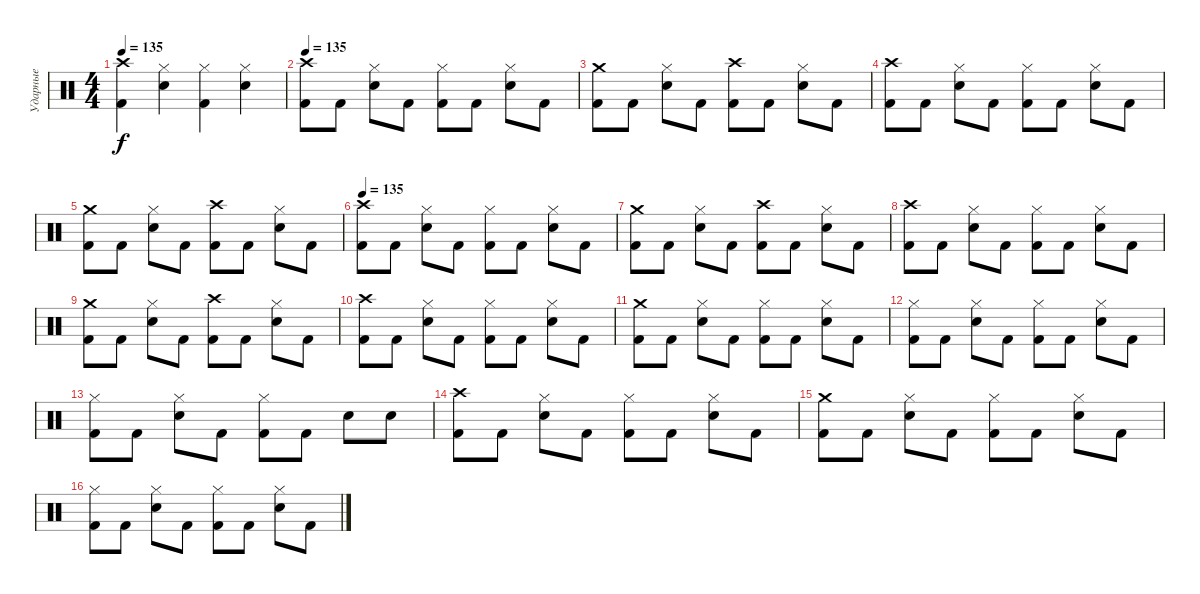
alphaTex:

\track ("Ударные" "Ударные") {solo instrument percussion}
\staff {score}
\articulation defaults
\ts (4 4)
\tempo 135
\clef neutral
\ks c
("Kick (hit) 2" "Crash high (hit)").4{dy f} ("Snare (hit) 2" "Hi-Hat (closed)").4 ("Kick (hit) 2" "Hi-Hat (closed)").4 ("Snare (hit) 2" "Hi-Hat (closed)").4 |
\tempo 135
("Kick (hit) 2" "Crash high (hit)").8 "Kick (hit) 2".8 ("Snare (hit) 2" "Hi-Hat (closed)").8 "Kick (hit) 2".8 ("Kick (hit) 2" "Hi-Hat (closed)").8 "Kick (hit) 2".8 ("Snare (hit) 2" "Hi-Hat (closed)").8 "Kick (hit) 2".8 |
("Kick (hit) 2" "Crash medium (hit)").8 "Kick (hit) 2".8 ("Snare (hit) 2" "Hi-Hat (closed)").8 "Kick (hit) 2".8 ("Kick (hit) 2" "Crash high (hit)").8 "Kick (hit) 2".8 ("Snare (hit) 2" "Hi-Hat (closed)").8 "Kick (hit) 2".8 |
("Kick (hit) 2" "Crash high (hit)").8 "Kick (hit) 2".8 ("Snare (hit) 2" "Hi-Hat (closed)").8 "Kick (hit) 2".8 ("Kick (hit) 2" "Hi-Hat (closed)").8 "Kick (hit) 2".8 ("Snare (hit) 2" "Hi-Hat (closed)").8 "Kick (hit) 2".8 |
("Kick (hit) 2" "Crash medium (hit)").8 "Kick (hit) 2".8 ("Snare (hit) 2" "Hi-Hat (closed)").8 "Kick (hit) 2".8 ("Kick (hit) 2" "Crash high (hit)").8 "Kick (hit) 2".8 ("Snare (hit) 2" "Hi-Hat (closed)").8 "Kick (hit) 2".8 |
\tempo 135
("Kick (hit) 2" "Crash high (hit)").8 "Kick (hit) 2".8 ("Snare (hit) 2" "Hi-Hat (closed)").8 "Kick (hit) 2".8 ("Kick (hit) 2" "Hi-Hat (closed)").8 "Kick (hit) 2".8 ("Snare (hit) 2" "Hi-Hat (closed)").8 "Kick (hit) 2".8 |
("Kick (hit) 2" "Crash medium (hit)").8 "Kick (hit) 2".8 ("Snare (hit) 2" "Hi-Hat (closed)").8 "Kick (hit) 2".8 ("Kick (hit) 2" "Crash high (hit)").8 "Kick (hit) 2".8 ("Snare (hit) 2" "Hi-Hat (closed)").8 "Kick (hit) 2".8 |
("Kick (hit) 2" "Crash high (hit)").8 "Kick (hit) 2".8 ("Snare (hit) 2" "Hi-Hat (closed)").8 "Kick (hit) 2".8 ("Kick (hit) 2" "Hi-Hat (closed)").8 "Kick (hit) 2".8 ("Snare (hit) 2" "Hi-Hat (closed)").8 "Kick (hit) 2".8 |
("Kick (hit) 2" "Crash medium (hit)").8 "Kick (hit) 2".8 ("Snare (hit) 2" "Hi-Hat (closed)").8 "Kick (hit) 2".8 ("Kick (hit) 2" "Crash high (hit)").8 "Kick (hit) 2".8 ("Snare (hit) 2" "Hi-Hat (closed)").8 "Kick (hit) 2".8 |
("Kick (hit) 2" "Crash high (hit)").8 "Kick (hit) 2".8 ("Snare (hit) 2" "Hi-Hat (closed)").8 "Kick (hit) 2".8 ("Kick (hit) 2" "Hi-Hat (closed)").8 "Kick (hit) 2".8 ("Snare (hit) 2" "Hi-Hat (closed)").8 "Kick (hit) 2".8 |
("Kick (hit) 2" "Crash medium (hit)").8 "Kick (hit) 2".8 ("Snare (hit) 2" "Hi-Hat (closed)").8 "Kick (hit) 2".8 ("Kick (hit) 2" "Hi-Hat (closed)").8 "Kick (hit) 2".8 ("Snare (hit) 2" "Hi-Hat (closed)").8 "Kick (hit) 2".8 |
("Kick (hit) 2" "Hi-Hat (closed)").8 "Kick (hit) 2".8 ("Snare (hit) 2" "Hi-Hat (closed)").8 "Kick (hit) 2".8 ("Kick (hit) 2" "Hi-Hat (closed)").8 "Kick (hit) 2".8 ("Snare (hit) 2" "Hi-Hat (closed)").8 "Kick (hit) 2".8 |
("Kick (hit) 2" "Hi-Hat (closed)").8 "Kick (hit) 2".8 ("Snare (hit) 2" "Hi-Hat (closed)").8 "Kick (hit) 2".8 ("Kick (hit) 2" "Hi-Hat (closed)").8 "Kick (hit) 2".8 "Snare (hit) 2".8 "Snare (hit) 2".8 |
("Kick (hit) 2" "Crash high (hit)").8 "Kick (hit) 2".8 ("Snare (hit) 2" "Hi-Hat (closed)").8 "Kick (hit) 2".8 ("Kick (hit) 2" "Hi-Hat (closed)").8 "Kick (hit) 2".8 ("Snare (hit) 2" "Hi-Hat (closed)").8 "Kick (hit) 2".8 |
("Kick (hit) 2" "Crash medium (hit)").8 "Kick (hit) 2".8 ("Snare (hit) 2" "Hi-Hat (closed)").8 "Kick (hit) 2".8 ("Kick (hit) 2" "Hi-Hat (closed)").8 "Kick (hit) 2".8 ("Snare (hit) 2" "Hi-Hat (closed)").8 "Kick (hit) 2".8 |
("Kick (hit) 2" "Hi-Hat (closed)").8 "Kick (hit) 2".8 ("Snare (hit) 2" "Hi-Hat (closed)").8 "Kick (hit) 2".8 ("Kick (hit) 2" "Hi-Hat (closed)").8 "Kick (hit) 2".8 ("Snare (hit) 2" "Hi-Hat (closed)").8 "Kick (hit) 2".8
